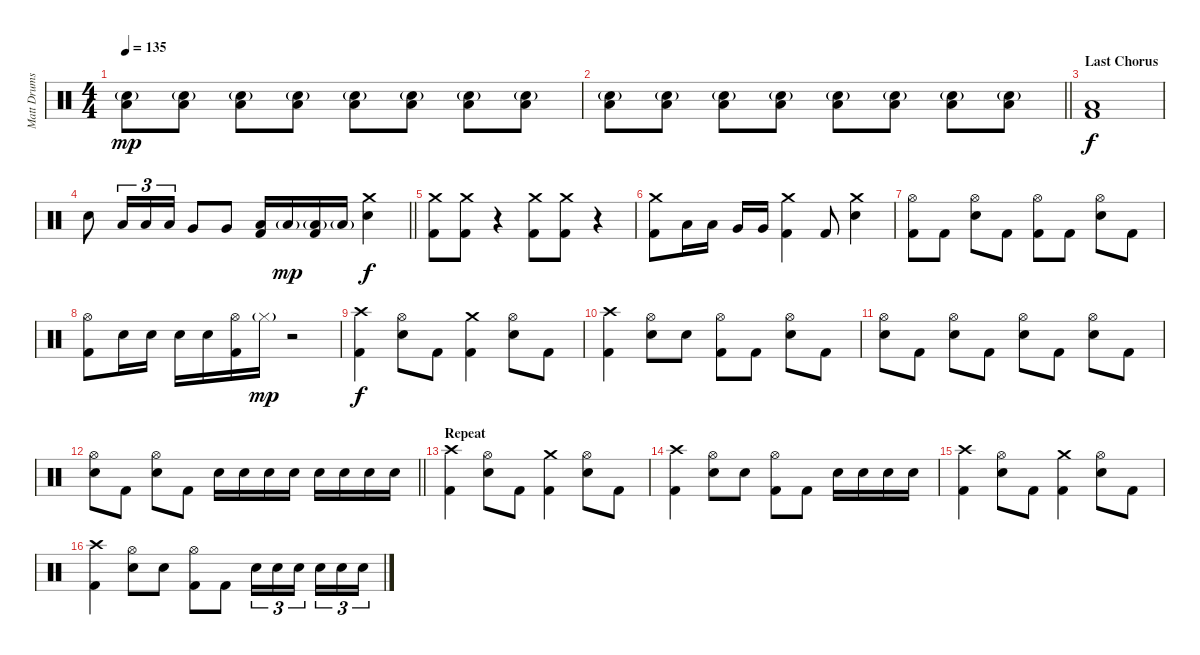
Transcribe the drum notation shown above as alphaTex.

\track ("Matt Drums" "Matt Drums") {instrument percussion}
\staff {score}
\articulation defaults
\ts (4 4)
\tempo 135
\clef neutral
\ks c
("Snare (hit) 2"{g} "Low Floor Tom (hit)").8{dy mp} ("Snare (hit) 2"{g} "Low Floor Tom (hit)").8 ("Snare (hit) 2"{g} "Low Floor Tom (hit)").8 ("Snare (hit) 2"{g} "Low Floor Tom (hit)").8 ("Snare (hit) 2"{g} "Low Floor Tom (hit)").8 ("Snare (hit) 2"{g} "Low Floor Tom (hit)").8 ("Snare (hit) 2"{g} "Low Floor Tom (hit)").8 ("Snare (hit) 2"{g} "Low Floor Tom (hit)").8 |
\barLineRight lightlight
("Snare (hit) 2"{g} "Low Floor Tom (hit)").8 ("Snare (hit) 2"{g} "Low Floor Tom (hit)").8 ("Snare (hit) 2"{g} "Low Floor Tom (hit)").8 ("Snare (hit) 2"{g} "Low Floor Tom (hit)").8 ("Snare (hit) 2"{g} "Low Floor Tom (hit)").8 ("Snare (hit) 2"{g} "Low Floor Tom (hit)").8 ("Snare (hit) 2"{g} "Low Floor Tom (hit)").8 ("Snare (hit) 2"{g} "Low Floor Tom (hit)").8 |
\section ("" "Last Chorus")
("Low Floor Tom (hit)" "Kick (hit) 2").1{dy f volume 13} |
\barLineRight lightlight "Snare (hit) 2".8 "Low Tom (hit)".16{tu (3 2)} "Low Tom (hit)".16{tu (3 2)} "Low Tom (hit)".16{tu (3 2)} "Very Low Tom (hit)".8 "Very Low Tom (hit)".8
("Low Floor Tom (hit)" "Kick (hit) 2").16 "Low Floor Tom (hit)"{g}.16{dy mp} ("Low Floor Tom (hit)"{g} "Kick (hit) 2").16 "Low Floor Tom (hit)"{g}.16 ("Crash medium (hit)" "Snare (hit) 2").4{dy f} |
("Crash medium (hit)" "Kick (hit) 2").8 ("Crash medium (hit)" "Kick (hit) 2").8 r.4 ("Crash medium (hit)" "Kick (hit) 2").8 ("Crash medium (hit)" "Kick (hit) 2").8 r.4 |
("Crash medium (hit)" "Kick (hit) 2").8 "Low Tom (hit)".16 "Low Tom (hit)".16 "Very Low Tom (hit)".16 "Very Low Tom (hit)".16 ("Crash medium (hit)" "Kick (hit) 2").4 "Kick (hit) 2".8 ("Crash medium (hit)" "Snare (hit) 2").4 |
("Hi-Hat (open)" "Kick (hit) 2").8 "Kick (hit) 2".8 ("Hi-Hat (open)" "Snare (hit) 2").8 "Kick (hit) 2".8 ("Hi-Hat (open)" "Kick (hit) 2").8 "Kick (hit) 2".8 ("Hi-Hat (open)" "Snare (hit) 2").8 "Kick (hit) 2".8 |
("Hi-Hat (open)" "Kick (hit) 2").8 "Snare (hit) 2".16 "Snare (hit) 2".16 "Snare (hit) 2".16 "Snare (hit) 2".16 ("Hi-Hat (open)" "Kick (hit) 2").16 "Hi-Hat (closed)"{g}.16{dy mp} r.2 |
("Crash high (hit)" "Kick (hit) 2").4{dy f} ("Hi-Hat (open)" "Snare (hit) 2").8 "Kick (hit) 2".8 ("Crash medium (hit)" "Kick (hit) 2").4 ("Hi-Hat (open)" "Snare (hit) 2").8 "Kick (hit) 2".8 |
("Crash high (hit)" "Kick (hit) 2").4 ("Hi-Hat (open)" "Snare (hit) 2").8 "Snare (hit) 2".8 ("Hi-Hat (open)" "Kick (hit) 2").8 "Kick (hit) 2".8 ("Hi-Hat (open)" "Snare (hit) 2").8 "Kick (hit) 2".8 |
("Hi-Hat (open)" "Snare (hit) 2").8 "Kick (hit) 2".8 ("Hi-Hat (open)" "Snare (hit) 2").8 "Kick (hit) 2".8 ("Hi-Hat (open)" "Snare (hit) 2").8 "Kick (hit) 2".8 ("Hi-Hat (open)" "Snare (hit) 2").8 "Kick (hit) 2".8 |
\barLineRight lightlight
("Hi-Hat (open)" "Snare (hit) 2").8 "Kick (hit) 2".8 ("Hi-Hat (open)" "Snare (hit) 2").8 "Kick (hit) 2".8 "Snare (hit) 2".16 "Snare (hit) 2".16 "Snare (hit) 2".16 "Snare (hit) 2".16 "Snare (hit) 2".16 "Snare (hit) 2".16 "Snare (hit) 2".16 "Snare (hit) 2".16 |
\section ("" "Repeat")
("Crash high (hit)" "Kick (hit) 2").4 ("Hi-Hat (open)" "Snare (hit) 2").8 "Kick (hit) 2".8 ("Crash medium (hit)" "Kick (hit) 2").4 ("Hi-Hat (open)" "Snare (hit) 2").8 "Kick (hit) 2".8 |
("Crash high (hit)" "Kick (hit) 2").4 ("Hi-Hat (open)" "Snare (hit) 2").8 "Snare (hit) 2".8 ("Hi-Hat (open)" "Kick (hit) 2").8 "Kick (hit) 2".8 "Snare (hit) 2".16 "Snare (hit) 2".16 "Snare (hit) 2".16 "Snare (hit) 2".16 |
("Crash high (hit)" "Kick (hit) 2").4 ("Hi-Hat (open)" "Snare (hit) 2").8 "Kick (hit) 2".8 ("Crash medium (hit)" "Kick (hit) 2").4 ("Hi-Hat (open)" "Snare (hit) 2").8 "Kick (hit) 2".8 |
("Crash high (hit)" "Kick (hit) 2").4 ("Hi-Hat (open)" "Snare (hit) 2").8 "Snare (hit) 2".8 ("Hi-Hat (open)" "Kick (hit) 2").8 "Kick (hit) 2".8 "Snare (hit) 2".16{tu (3 2)} "Snare (hit) 2".16{tu (3 2)} "Snare (hit) 2".16{tu (3 2) beam splitsecondary} "Snare (hit) 2".16{tu (3 2)} "Snare (hit) 2".16{tu (3 2)} "Snare (hit) 2".16{tu (3 2)}
